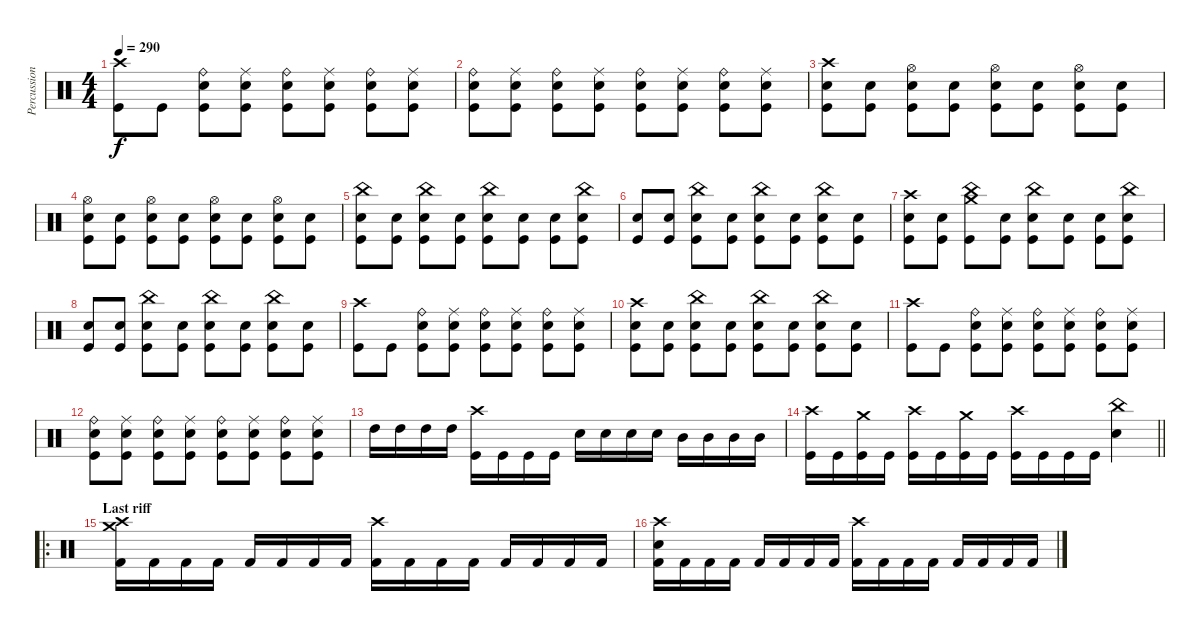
\track ("Percussion" "Percussion") {instrument percussion}
\staff {score}
\articulation defaults
\ts (4 4)
\tempo 290
\clef neutral
\ks c
("Crash high (hit)" "Kick (hit)").8{dy f} "Kick (hit)".8 ("Electric Snare (hit)" "Ride (bell)" "Kick (hit)").8 ("Electric Snare (hit)" "Ride (middle)" "Kick (hit)").8 ("Electric Snare (hit)" "Ride (bell)" "Kick (hit)").8 ("Electric Snare (hit)" "Ride (middle)" "Kick (hit)").8 ("Electric Snare (hit)" "Ride (bell)" "Kick (hit)").8 ("Electric Snare (hit)" "Ride (middle)" "Kick (hit)").8 |
("Electric Snare (hit)" "Ride (bell)" "Kick (hit)").8 ("Electric Snare (hit)" "Ride (middle)" "Kick (hit)").8 ("Electric Snare (hit)" "Ride (bell)" "Kick (hit)").8 ("Electric Snare (hit)" "Ride (middle)" "Kick (hit)").8 ("Electric Snare (hit)" "Ride (bell)" "Kick (hit)").8 ("Electric Snare (hit)" "Ride (middle)" "Kick (hit)").8 ("Electric Snare (hit)" "Ride (bell)" "Kick (hit)").8 ("Electric Snare (hit)" "Ride (middle)" "Kick (hit)").8 |
("Crash high (hit)" "Kick (hit)" "Electric Snare (hit)").8 ("Kick (hit)" "Electric Snare (hit)").8 ("Electric Snare (hit)" "Hi-Hat (open)" "Kick (hit)").8 ("Electric Snare (hit)" "Kick (hit)").8 ("Electric Snare (hit)" "Hi-Hat (open)" "Kick (hit)").8 ("Electric Snare (hit)" "Kick (hit)").8 ("Electric Snare (hit)" "Hi-Hat (open)" "Kick (hit)").8 ("Electric Snare (hit)" "Kick (hit)").8 |
("Electric Snare (hit)" "Hi-Hat (open)" "Kick (hit)").8 ("Electric Snare (hit)" "Kick (hit)").8 ("Electric Snare (hit)" "Hi-Hat (open)" "Kick (hit)").8 ("Electric Snare (hit)" "Kick (hit)").8 ("Electric Snare (hit)" "Hi-Hat (open)" "Kick (hit)").8 ("Electric Snare (hit)" "Kick (hit)").8 ("Electric Snare (hit)" "Hi-Hat (open)" "Kick (hit)").8 ("Electric Snare (hit)" "Kick (hit)").8 |
("China (hit)" "Electric Snare (hit)" "Kick (hit)").8 ("Electric Snare (hit)" "Kick (hit)").8 ("Electric Snare (hit)" "China (hit)" "Kick (hit)").8 ("Electric Snare (hit)" "Kick (hit)").8 ("Electric Snare (hit)" "China (hit)" "Kick (hit)").8 ("Electric Snare (hit)" "Kick (hit)").8 ("Electric Snare (hit)" "Kick (hit)").8 ("Electric Snare (hit)" "China (hit)" "Kick (hit)").8 |
("Electric Snare (hit)" "Kick (hit)").8 ("Electric Snare (hit)" "Kick (hit)").8 ("Electric Snare (hit)" "China (hit)" "Kick (hit)").8 ("Electric Snare (hit)" "Kick (hit)").8 ("Electric Snare (hit)" "China (hit)" "Kick (hit)").8 ("Electric Snare (hit)" "Kick (hit)").8 ("Electric Snare (hit)" "China (hit)" "Kick (hit)").8 ("Electric Snare (hit)" "Kick (hit)").8 |
("Crash high (hit)" "Electric Snare (hit)" "Kick (hit)").8 ("Electric Snare (hit)" "Kick (hit)").8 ("Crash medium (hit)" "China (hit)" "Kick (hit)").8 ("Electric Snare (hit)" "Kick (hit)").8 ("Electric Snare (hit)" "China (hit)" "Kick (hit)").8 ("Electric Snare (hit)" "Kick (hit)").8 ("Electric Snare (hit)" "Kick (hit)").8 ("Electric Snare (hit)" "China (hit)" "Kick (hit)").8 |
("Electric Snare (hit)" "Kick (hit)").8 ("Electric Snare (hit)" "Kick (hit)").8 ("Electric Snare (hit)" "China (hit)" "Kick (hit)").8 ("Electric Snare (hit)" "Kick (hit)").8 ("Electric Snare (hit)" "China (hit)" "Kick (hit)").8 ("Electric Snare (hit)" "Kick (hit)").8 ("Electric Snare (hit)" "China (hit)" "Kick (hit)").8 ("Electric Snare (hit)" "Kick (hit)").8 |
("Crash high (hit)" "Kick (hit)").8 "Kick (hit)".8 ("Electric Snare (hit)" "Ride (bell)" "Kick (hit)").8 ("Electric Snare (hit)" "Ride (middle)" "Kick (hit)").8 ("Electric Snare (hit)" "Ride (bell)" "Kick (hit)").8 ("Electric Snare (hit)" "Ride (middle)" "Kick (hit)").8 ("Electric Snare (hit)" "Ride (bell)" "Kick (hit)").8 ("Electric Snare (hit)" "Ride (middle)" "Kick (hit)").8 |
("Electric Snare (hit)" "Crash high (hit)" "Kick (hit)").8 ("Electric Snare (hit)" "Kick (hit)").8 ("Electric Snare (hit)" "China (hit)" "Kick (hit)").8 ("Electric Snare (hit)" "Kick (hit)").8 ("Electric Snare (hit)" "China (hit)" "Kick (hit)").8 ("Electric Snare (hit)" "Kick (hit)").8 ("Electric Snare (hit)" "China (hit)" "Kick (hit)").8 ("Electric Snare (hit)" "Kick (hit)").8 |
("Crash high (hit)" "Kick (hit)").8 "Kick (hit)".8 ("Electric Snare (hit)" "Ride (bell)" "Kick (hit)").8 ("Electric Snare (hit)" "Ride (middle)" "Kick (hit)").8 ("Electric Snare (hit)" "Ride (bell)" "Kick (hit)").8 ("Electric Snare (hit)" "Ride (middle)" "Kick (hit)").8 ("Electric Snare (hit)" "Ride (bell)" "Kick (hit)").8 ("Electric Snare (hit)" "Ride (middle)" "Kick (hit)").8 |
("Electric Snare (hit)" "Ride (bell)" "Kick (hit)").8 ("Electric Snare (hit)" "Ride (middle)" "Kick (hit)").8 ("Electric Snare (hit)" "Ride (bell)" "Kick (hit)").8 ("Electric Snare (hit)" "Ride (middle)" "Kick (hit)").8 ("Electric Snare (hit)" "Ride (bell)" "Kick (hit)").8 ("Electric Snare (hit)" "Ride (middle)" "Kick (hit)").8 ("Electric Snare (hit)" "Ride (bell)" "Kick (hit)").8 ("Electric Snare (hit)" "Ride (middle)" "Kick (hit)").8 |
"High Tom (hit)".16 "High Tom (hit)".16 "High Tom (hit)".16 "High Tom (hit)".16 ("Crash high (hit)" "Kick (hit)").16 "Kick (hit)".16 "Kick (hit)".16 "Kick (hit)".16 "Electric Snare (hit)".16 "Electric Snare (hit)".16 "Electric Snare (hit)".16 "Electric Snare (hit)".16 "Mid Tom (hit)".16 "Mid Tom (hit)".16 "Mid Tom (hit)".16 "Mid Tom (hit)".16 |
\barLineRight lightlight
("Crash high (hit)" "Kick (hit)").16 "Kick (hit)".16 ("Kick (hit)" "Crash medium (hit)").16 "Kick (hit)".16 ("Kick (hit)" "Crash high (hit)").16 "Kick (hit)".16 ("Kick (hit)" "Crash medium (hit)").16 "Kick (hit)".16 ("Kick (hit)" "Crash high (hit)").16 "Kick (hit)".16 "Kick (hit)".16 "Kick (hit)".16 ("China (hit)" "Electric Snare (hit)").4 |
\ro
\section ("" "Last riff")
("Crash high (hit)" "Crash medium (hit)" "Kick (hit) 2").16 "Kick (hit) 2".16 "Kick (hit) 2".16 "Kick (hit) 2".16 "Kick (hit) 2".16 "Kick (hit) 2".16 "Kick (hit) 2".16 "Kick (hit) 2".16 ("Crash high (hit)" "Kick (hit) 2").16 "Kick (hit) 2".16 "Kick (hit) 2".16 "Kick (hit) 2".16 "Kick (hit) 2".16 "Kick (hit) 2".16 "Kick (hit) 2".16 "Kick (hit) 2".16 |
("Crash high (hit)" "Electric Snare (hit)" "Kick (hit) 2").16 "Kick (hit) 2".16 "Kick (hit) 2".16 "Kick (hit) 2".16 "Kick (hit) 2".16 "Kick (hit) 2".16 "Kick (hit) 2".16 "Kick (hit) 2".16 ("Crash high (hit)" "Kick (hit) 2").16 "Kick (hit) 2".16 "Kick (hit) 2".16 "Kick (hit) 2".16 "Kick (hit) 2".16 "Kick (hit) 2".16 "Kick (hit) 2".16 "Kick (hit) 2".16
